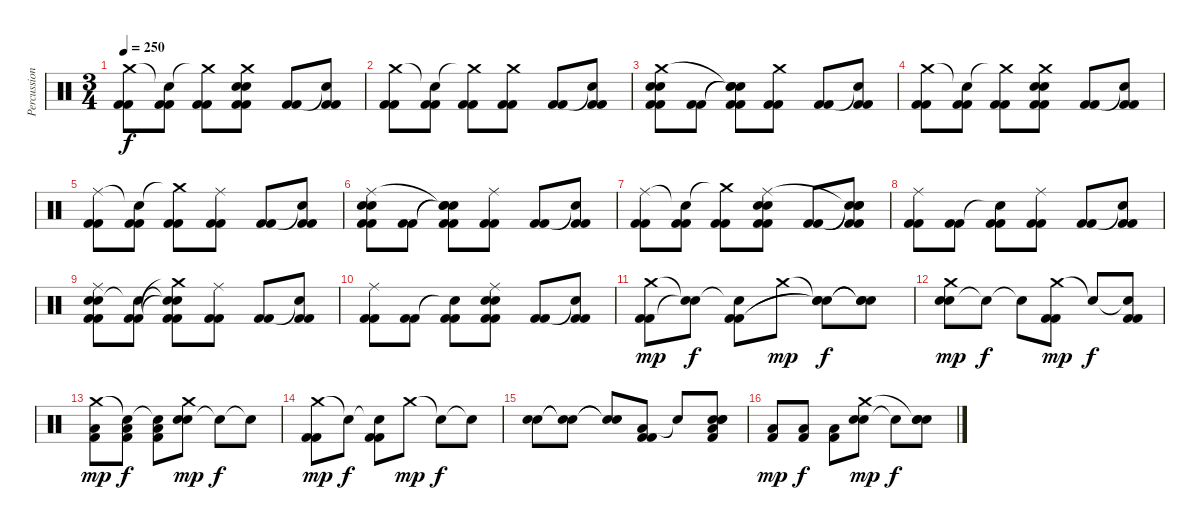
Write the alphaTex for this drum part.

\track ("Percussion" "Percussion") {instrument percussion}
\staff {score}
\articulation defaults
\ts (3 4)
\tempo 250
\clef neutral
\ks c
("Crash medium (hit)" "Kick (hit) 2" "Kick (hit) 2").8{dy f} ("Snare (hit)"{t} "Kick (hit) 2" "Kick (hit) 2").8 ("Crash medium (hit)"{t} "Kick (hit) 2" "Kick (hit) 2").8 ("Snare (hit) 2" "Snare (hit) 2" "Crash medium (hit)" "Kick (hit) 2" "Kick (hit) 2").8 ("Kick (hit) 2" "Kick (hit) 2").8 ("Snare (hit)"{t} "Kick (hit) 2" "Kick (hit) 2").8 |
("Crash medium (hit)" "Kick (hit) 2" "Kick (hit) 2").8 ("Snare (hit)"{t} "Kick (hit) 2" "Kick (hit) 2").8 ("Crash medium (hit)"{t} "Kick (hit) 2" "Kick (hit) 2").8 ("Crash medium (hit)" "Kick (hit) 2" "Kick (hit) 2").8 ("Kick (hit) 2" "Kick (hit) 2").8 ("Snare (hit)"{t} "Kick (hit) 2" "Kick (hit) 2").8 |
("Snare (hit) 2" "Snare (hit) 2" "Crash medium (hit)" "Kick (hit) 2" "Kick (hit) 2").8 ("Kick (hit) 2" "Kick (hit) 2").8 ("Snare (hit)"{t} "Snare (hit)"{t} "Snare (hit)"{t} "Kick (hit) 2" "Kick (hit) 2").8 ("Crash medium (hit)" "Kick (hit) 2" "Kick (hit) 2").8 ("Kick (hit) 2" "Kick (hit) 2").8 ("Snare (hit)"{t} "Kick (hit) 2" "Kick (hit) 2").8 |
("Crash medium (hit)" "Kick (hit) 2" "Kick (hit) 2").8 ("Snare (hit)"{t} "Kick (hit) 2" "Kick (hit) 2").8 ("Crash medium (hit)"{t} "Kick (hit) 2" "Kick (hit) 2").8 ("Snare (hit) 2" "Snare (hit) 2" "Crash medium (hit)" "Kick (hit) 2" "Kick (hit) 2").8 ("Kick (hit) 2" "Kick (hit) 2").8 ("Snare (hit)"{t} "Kick (hit) 2" "Kick (hit) 2").8 |
("Ride (middle)" "Kick (hit) 2" "Kick (hit) 2").8 ("Snare (hit)"{t} "Kick (hit) 2" "Kick (hit) 2").8 ("Crash medium (hit)"{t} "Kick (hit) 2" "Kick (hit) 2").8 ("Ride (middle)" "Kick (hit) 2" "Kick (hit) 2").8 ("Kick (hit) 2" "Kick (hit) 2").8 ("Snare (hit)"{t} "Kick (hit) 2" "Kick (hit) 2").8 |
("Snare (hit) 2" "Snare (hit) 2" "Ride (middle)" "Kick (hit) 2" "Kick (hit) 2").8 ("Kick (hit) 2" "Kick (hit) 2").8 ("Snare (hit)"{t} "Snare (hit)"{t} "Snare (hit)"{t} "Kick (hit) 2" "Kick (hit) 2").8 ("Ride (middle)" "Kick (hit) 2" "Kick (hit) 2").8 ("Kick (hit) 2" "Kick (hit) 2").8 ("Snare (hit)"{t} "Kick (hit) 2" "Kick (hit) 2").8 |
("Ride (middle)" "Kick (hit) 2" "Kick (hit) 2").8 ("Snare (hit)"{t} "Kick (hit) 2" "Kick (hit) 2").8 ("Crash medium (hit)"{t} "Kick (hit) 2" "Kick (hit) 2").8 ("Snare (hit) 2" "Snare (hit) 2" "Ride (middle)" "Kick (hit) 2" "Kick (hit) 2").8 ("Kick (hit) 2" "Kick (hit) 2").8 ("Snare (hit)"{t} "Snare (hit)"{t} "Snare (hit)"{t} "Kick (hit) 2" "Kick (hit) 2").8 |
("Ride (middle)" "Kick (hit) 2" "Kick (hit) 2").8 ("Kick (hit) 2" "Kick (hit) 2").8 ("Snare (hit)"{t} "Kick (hit) 2" "Kick (hit) 2").8 ("Ride (middle)" "Kick (hit) 2" "Kick (hit) 2").8 ("Kick (hit) 2" "Kick (hit) 2").8 ("Snare (hit)"{t} "Kick (hit) 2" "Kick (hit) 2").8 |
("Snare (hit) 2" "Snare (hit) 2" "Ride (middle)" "Kick (hit) 2" "Kick (hit) 2").8 ("Snare (hit)"{t} "Kick (hit) 2" "Kick (hit) 2").8 ("Snare (hit)"{t} "Snare (hit)"{t} "Crash medium (hit)"{t} "Kick (hit) 2" "Kick (hit) 2").8 ("Ride (middle)" "Kick (hit) 2" "Kick (hit) 2").8 ("Kick (hit) 2" "Kick (hit) 2").8 ("Snare (hit)"{t} "Kick (hit) 2" "Kick (hit) 2").8 |
("Ride (middle)" "Kick (hit) 2" "Kick (hit) 2").8 ("Kick (hit) 2" "Kick (hit) 2").8 ("Snare (hit)"{t} "Kick (hit) 2" "Kick (hit) 2").8 ("Snare (hit) 2" "Snare (hit) 2" "Ride (middle)" "Kick (hit) 2" "Kick (hit) 2").8 ("Kick (hit) 2" "Kick (hit) 2").8 ("Snare (hit)"{t} "Kick (hit) 2" "Kick (hit) 2").8 |
("Crash medium (hit)" "Kick (hit) 2" "Kick (hit) 2").8{dy mp} ("Snare (hit)"{t} "Snare (hit)"{t}).8{dy f} ("Snare (hit)"{t} "Kick (hit) 2" "Kick (hit) 2").8 "Crash medium (hit)".8{dy mp} ("Snare (hit)"{t} "Snare (hit)"{t} "Snare (hit)"{t}).8{dy f} ("Snare (hit)"{t} "Snare (hit)"{t} "Snare (hit)"{t}).8 |
("Snare (hit) 2" "Snare (hit) 2" "Crash medium (hit)").8{dy mp} "Snare (hit)"{t}.8{dy f} "Snare (hit)"{t}.8 ("Crash medium (hit)" "Kick (hit) 2" "Kick (hit) 2").8{dy mp} "Snare (hit)"{t}.8{dy f} ("Snare (hit)"{t} "Kick (hit) 2" "Kick (hit) 2").8 |
("Low Tom (hit)" "Crash medium (hit)" "Kick (hit) 2").8{dy mp} ("Low Tom (hit)" "Snare (hit)"{t} "Kick (hit) 2").8{dy f} ("Low Tom (hit)" "Snare (hit)"{t} "Kick (hit) 2").8 ("Snare (hit) 2" "Snare (hit) 2" "Crash medium (hit)").8{dy mp} "Snare (hit)"{t}.8{dy f} "Snare (hit)"{t}.8 |
("Crash medium (hit)" "Kick (hit) 2" "Kick (hit) 2").8{dy mp} "Snare (hit)"{t}.8{dy f} ("Snare (hit)"{t} "Kick (hit) 2" "Kick (hit) 2").8 "Crash medium (hit)".8{dy mp} "Snare (hit)"{t}.8{dy f} "Snare (hit)"{t}.8 |
("Snare (hit) 2" "Snare (hit) 2").8 ("Snare (hit)"{t} "Snare (hit)"{t}).8 ("Snare (hit)"{t} "Snare (hit) 2"{t}).8 ("Low Tom (hit)" "Kick (hit) 2" "Kick (hit) 2").8 "Snare (hit)"{t}.8 ("Snare (hit) 2" "Snare (hit) 2" "Low Tom (hit)" "Snare (hit)" "Kick (hit) 2").8 |
("Low Tom (hit)" "Kick (hit) 2").8{dy mp} ("Low Tom (hit)" "Kick (hit) 2").8{dy f} ("Low Tom (hit)" "Kick (hit) 2").8 ("Snare (hit) 2" "Snare (hit) 2" "Crash medium (hit)").8{dy mp} "Snare (hit)"{t}.8{dy f} ("Snare (hit) 2" "Snare (hit) 2" "Snare (hit)"{t}).8
